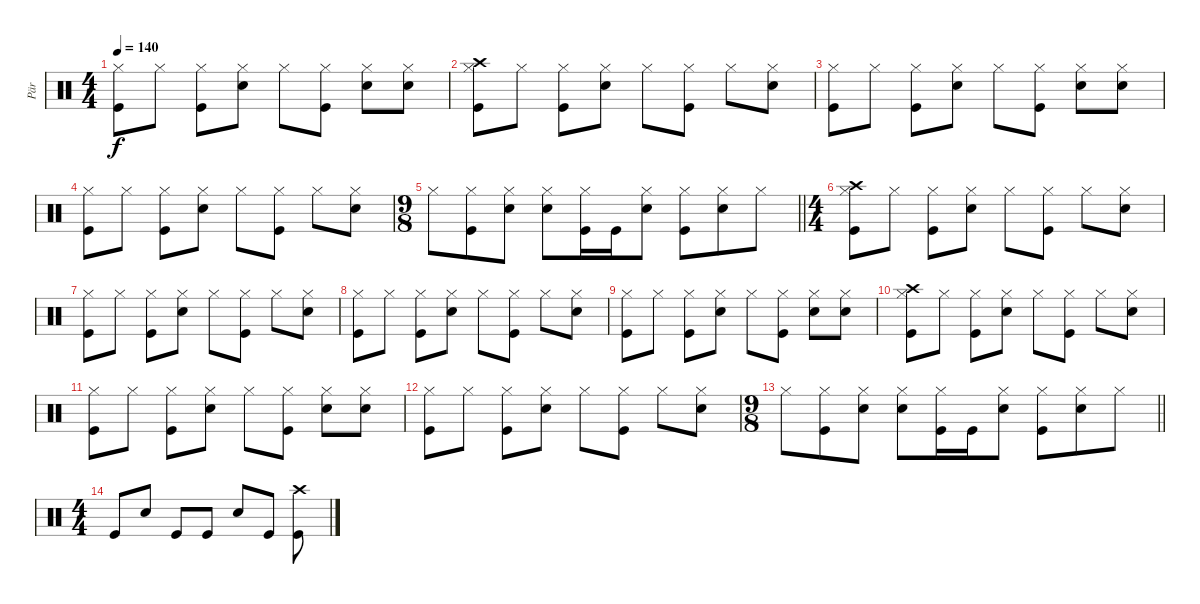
\track ("Pär" "Pär") {instrument percussion}
\staff {score}
\articulation defaults
\ts (4 4)
\tempo 140
\clef neutral
\ks c
("Hi-Hat (closed)" "Kick (hit)").8{dy f} "Hi-Hat (closed)".8 ("Hi-Hat (closed)" "Kick (hit)").8 ("Hi-Hat (closed)" "Snare (hit) 2").8 "Hi-Hat (closed)".8 ("Hi-Hat (closed)" "Kick (hit)").8 ("Hi-Hat (closed)" "Snare (hit) 2").8 ("Hi-Hat (closed)" "Snare (hit) 2").8 |
("Hi-Hat (closed)" "Crash high (hit)" "Kick (hit)").8 "Hi-Hat (closed)".8 ("Hi-Hat (closed)" "Kick (hit)").8 ("Hi-Hat (closed)" "Snare (hit) 2").8 "Hi-Hat (closed)".8 ("Hi-Hat (closed)" "Kick (hit)").8 "Hi-Hat (closed)".8 ("Hi-Hat (closed)" "Snare (hit) 2").8 |
("Hi-Hat (closed)" "Kick (hit)").8 "Hi-Hat (closed)".8 ("Hi-Hat (closed)" "Kick (hit)").8 ("Hi-Hat (closed)" "Snare (hit) 2").8 "Hi-Hat (closed)".8 ("Hi-Hat (closed)" "Kick (hit)").8 ("Hi-Hat (closed)" "Snare (hit) 2").8 ("Hi-Hat (closed)" "Snare (hit) 2").8 |
("Hi-Hat (closed)" "Kick (hit)").8 "Hi-Hat (closed)".8 ("Hi-Hat (closed)" "Kick (hit)").8 ("Hi-Hat (closed)" "Snare (hit) 2").8 "Hi-Hat (closed)".8 ("Hi-Hat (closed)" "Kick (hit)").8 "Hi-Hat (closed)".8 ("Hi-Hat (closed)" "Snare (hit) 2").8 |
\ts (9 8)
\barLineRight lightlight "Hi-Hat (closed)".8
("Hi-Hat (closed)" "Kick (hit)").8 ("Hi-Hat (closed)" "Snare (hit) 2").8 ("Hi-Hat (closed)" "Snare (hit) 2").8 ("Hi-Hat (closed)" "Kick (hit)").16 "Kick (hit)".16 ("Hi-Hat (closed)" "Snare (hit) 2").8 ("Hi-Hat (closed)" "Kick (hit)").8 ("Hi-Hat (closed)" "Snare (hit) 2").8 "Hi-Hat (closed)".8 |
\ts (4 4)
("Hi-Hat (closed)" "Crash high (hit)" "Kick (hit)").8 "Hi-Hat (closed)".8 ("Hi-Hat (closed)" "Kick (hit)").8 ("Hi-Hat (closed)" "Snare (hit) 2").8 "Hi-Hat (closed)".8 ("Hi-Hat (closed)" "Kick (hit)").8 "Hi-Hat (closed)".8 ("Hi-Hat (closed)" "Snare (hit) 2").8 |
("Hi-Hat (closed)" "Kick (hit)").8 "Hi-Hat (closed)".8 ("Hi-Hat (closed)" "Kick (hit)").8 ("Hi-Hat (closed)" "Snare (hit) 2").8 "Hi-Hat (closed)".8 ("Hi-Hat (closed)" "Kick (hit)").8 "Hi-Hat (closed)".8 ("Hi-Hat (closed)" "Snare (hit) 2").8 |
("Hi-Hat (closed)" "Kick (hit)").8 "Hi-Hat (closed)".8 ("Hi-Hat (closed)" "Kick (hit)").8 ("Hi-Hat (closed)" "Snare (hit) 2").8 "Hi-Hat (closed)".8 ("Hi-Hat (closed)" "Kick (hit)").8 "Hi-Hat (closed)".8 ("Hi-Hat (closed)" "Snare (hit) 2").8 |
("Hi-Hat (closed)" "Kick (hit)").8 "Hi-Hat (closed)".8 ("Hi-Hat (closed)" "Kick (hit)").8 ("Hi-Hat (closed)" "Snare (hit) 2").8 "Hi-Hat (closed)".8 ("Hi-Hat (closed)" "Kick (hit)").8 ("Hi-Hat (closed)" "Snare (hit) 2").8 ("Hi-Hat (closed)" "Snare (hit) 2").8 |
("Hi-Hat (closed)" "Crash high (hit)" "Kick (hit)").8 "Hi-Hat (closed)".8 ("Hi-Hat (closed)" "Kick (hit)").8 ("Hi-Hat (closed)" "Snare (hit) 2").8 "Hi-Hat (closed)".8 ("Hi-Hat (closed)" "Kick (hit)").8 "Hi-Hat (closed)".8 ("Hi-Hat (closed)" "Snare (hit) 2").8 |
("Hi-Hat (closed)" "Kick (hit)").8 "Hi-Hat (closed)".8 ("Hi-Hat (closed)" "Kick (hit)").8 ("Hi-Hat (closed)" "Snare (hit) 2").8 "Hi-Hat (closed)".8 ("Hi-Hat (closed)" "Kick (hit)").8 ("Hi-Hat (closed)" "Snare (hit) 2").8 ("Hi-Hat (closed)" "Snare (hit) 2").8 |
("Hi-Hat (closed)" "Kick (hit)").8 "Hi-Hat (closed)".8 ("Hi-Hat (closed)" "Kick (hit)").8 ("Hi-Hat (closed)" "Snare (hit) 2").8 "Hi-Hat (closed)".8 ("Hi-Hat (closed)" "Kick (hit)").8 "Hi-Hat (closed)".8 ("Hi-Hat (closed)" "Snare (hit) 2").8 |
\ts (9 8)
\barLineRight lightlight "Hi-Hat (closed)".8
("Hi-Hat (closed)" "Kick (hit)").8 ("Hi-Hat (closed)" "Snare (hit) 2").8 ("Hi-Hat (closed)" "Snare (hit) 2").8 ("Hi-Hat (closed)" "Kick (hit)").16 "Kick (hit)".16 ("Hi-Hat (closed)" "Snare (hit) 2").8 ("Hi-Hat (closed)" "Kick (hit)").8 ("Hi-Hat (closed)" "Snare (hit) 2").8 "Hi-Hat (closed)".8 |
\ts (4 4)
"Kick (hit)".8 "Snare (hit) 2".8 "Kick (hit)".8 "Kick (hit)".8 "Snare (hit) 2".8 "Kick (hit)".8 ("Crash high (hit)" "Kick (hit)").8
